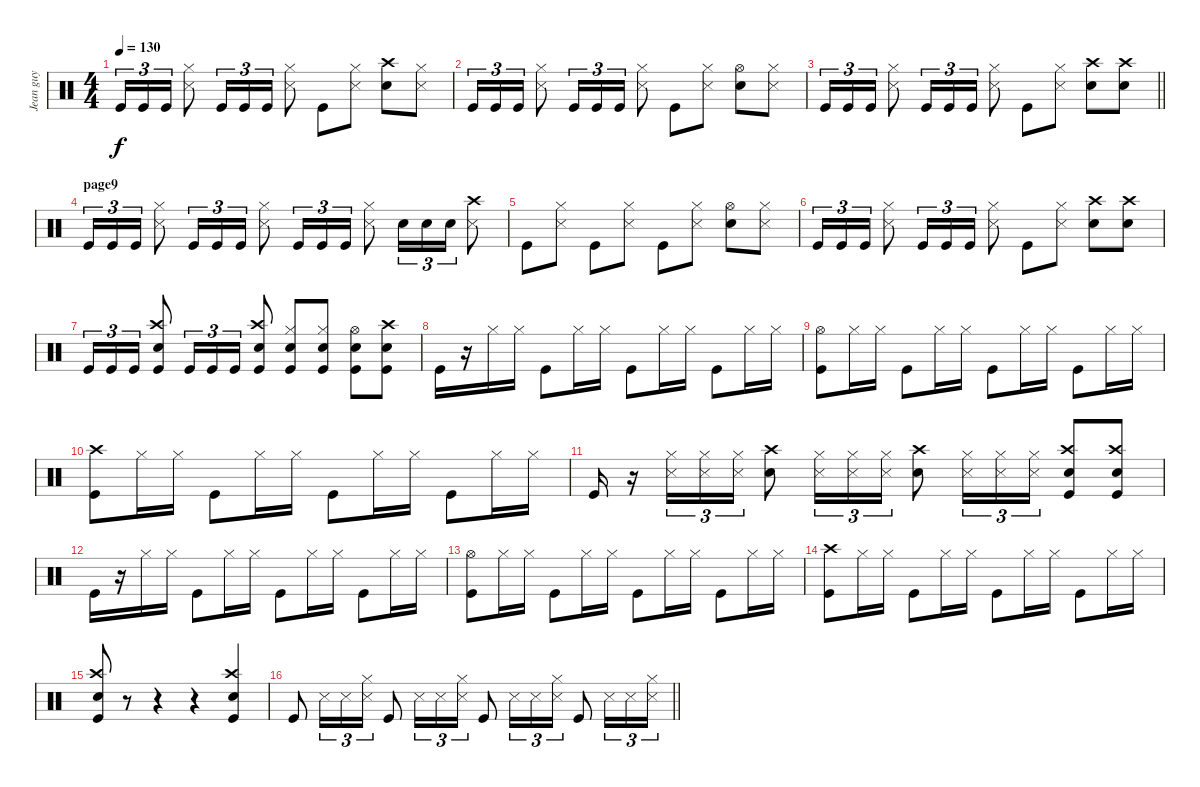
\track ("Jean guy" "Jean guy") {instrument percussion}
\staff {score}
\articulation defaults
\ts (4 4)
\tempo 130
\clef neutral
\ks c "Kick (hit)".16{tu (3 2) dy f} "Kick (hit)".16{tu (3 2)} "Kick (hit)".16{tu (3 2)}
("Hi-Hat (closed)" "Snare (side stick) 3").8 "Kick (hit)".16{tu (3 2)} "Kick (hit)".16{tu (3 2)} "Kick (hit)".16{tu (3 2)} ("Hi-Hat (closed)" "Snare (side stick) 3").8 "Kick (hit)".8 ("Hi-Hat (closed)" "Snare (side stick) 3").8 ("Crash high (hit)" "Electric Snare (hit)").8 ("Hi-Hat (closed)" "Snare (side stick) 3").8 |
"Kick (hit)".16{tu (3 2)} "Kick (hit)".16{tu (3 2)} "Kick (hit)".16{tu (3 2)} ("Hi-Hat (closed)" "Snare (side stick) 3").8 "Kick (hit)".16{tu (3 2)} "Kick (hit)".16{tu (3 2)} "Kick (hit)".16{tu (3 2)} ("Hi-Hat (closed)" "Snare (side stick) 3").8 "Kick (hit)".8 ("Hi-Hat (closed)" "Snare (side stick) 3").8 ("Hi-Hat (open)" "Electric Snare (hit)").8 ("Hi-Hat (closed)" "Snare (side stick) 3").8 |
\barLineRight lightlight "Kick (hit)".16{tu (3 2)} "Kick (hit)".16{tu (3 2)} "Kick (hit)".16{tu (3 2)}
("Hi-Hat (closed)" "Snare (side stick) 3").8 "Kick (hit)".16{tu (3 2)} "Kick (hit)".16{tu (3 2)} "Kick (hit)".16{tu (3 2)} ("Hi-Hat (closed)" "Snare (side stick) 3").8 "Kick (hit)".8 ("Hi-Hat (closed)" "Snare (side stick) 3").8 ("Crash high (hit)" "Electric Snare (hit)").8 ("Crash high (hit)" "Electric Snare (hit)").8 |
\section ("" "page9")
"Kick (hit)".16{tu (3 2)} "Kick (hit)".16{tu (3 2)} "Kick (hit)".16{tu (3 2)} ("Hi-Hat (closed)" "Snare (side stick) 3").8 "Kick (hit)".16{tu (3 2)} "Kick (hit)".16{tu (3 2)} "Kick (hit)".16{tu (3 2)} ("Hi-Hat (closed)" "Snare (side stick) 3").8 "Kick (hit)".16{tu (3 2)} "Kick (hit)".16{tu (3 2)} "Kick (hit)".16{tu (3 2)} ("Hi-Hat (closed)" "Snare (side stick) 3").8 "Electric Snare (hit)".16{tu (3 2)} "Electric Snare (hit)".16{tu (3 2)} "Electric Snare (hit)".16{tu (3 2)} ("Crash high (hit)" "Snare (side stick) 3").8 |
"Kick (hit)".8 ("Hi-Hat (closed)" "Snare (side stick) 3").8 "Kick (hit)".8 ("Hi-Hat (closed)" "Snare (side stick) 3").8 "Kick (hit)".8 ("Hi-Hat (closed)" "Snare (side stick) 3").8 ("Hi-Hat (open)" "Electric Snare (hit)").8 ("Hi-Hat (closed)" "Snare (side stick) 3").8 |
"Kick (hit)".16{tu (3 2)} "Kick (hit)".16{tu (3 2)} "Kick (hit)".16{tu (3 2)} ("Hi-Hat (closed)" "Snare (side stick) 3").8 "Kick (hit)".16{tu (3 2)} "Kick (hit)".16{tu (3 2)} "Kick (hit)".16{tu (3 2)} ("Hi-Hat (closed)" "Snare (side stick) 3").8 "Kick (hit)".8 ("Hi-Hat (closed)" "Snare (side stick) 3").8 ("Crash high (hit)" "Electric Snare (hit)").8 ("Crash high (hit)" "Electric Snare (hit)").8 |
"Kick (hit)".16{tu (3 2)} "Kick (hit)".16{tu (3 2)} "Kick (hit)".16{tu (3 2)} ("Crash high (hit)" "Electric Snare (hit)" "Kick (hit)").8 "Kick (hit)".16{tu (3 2)} "Kick (hit)".16{tu (3 2)} "Kick (hit)".16{tu (3 2)} ("Crash high (hit)" "Electric Snare (hit)" "Kick (hit)").8 ("Hi-Hat (closed)" "Kick (hit)" "Electric Snare (hit)").8 ("Hi-Hat (closed)" "Kick (hit)" "Electric Snare (hit)").8 ("Hi-Hat (open)" "Kick (hit)" "Electric Snare (hit)").8 ("Crash high (hit)" "Kick (hit)" "Electric Snare (hit)").8 |
"Kick (hit)".16 r.16 "Hi-Hat (closed)".16 "Hi-Hat (closed)".16 "Kick (hit)".8 "Hi-Hat (closed)".16 "Hi-Hat (closed)".16 "Kick (hit)".8 "Hi-Hat (closed)".16 "Hi-Hat (closed)".16 "Kick (hit)".8 "Hi-Hat (closed)".16 "Hi-Hat (closed)".16 |
("Hi-Hat (open)" "Kick (hit)").8 "Hi-Hat (closed)".16 "Hi-Hat (closed)".16 "Kick (hit)".8 "Hi-Hat (closed)".16 "Hi-Hat (closed)".16 "Kick (hit)".8 "Hi-Hat (closed)".16 "Hi-Hat (closed)".16 "Kick (hit)".8 "Hi-Hat (closed)".16 "Hi-Hat (closed)".16 |
("Crash high (hit)" "Kick (hit)").8 "Hi-Hat (closed)".16 "Hi-Hat (closed)".16 "Kick (hit)".8 "Hi-Hat (closed)".16 "Hi-Hat (closed)".16 "Kick (hit)".8 "Hi-Hat (closed)".16 "Hi-Hat (closed)".16 "Kick (hit)".8 "Hi-Hat (closed)".16 "Hi-Hat (closed)".16 |
"Kick (hit)".16 r.16 ("Hi-Hat (closed)" "Snare (side stick) 3").16{tu (3 2)} ("Hi-Hat (closed)" "Snare (side stick) 3").16{tu (3 2)} ("Hi-Hat (closed)" "Snare (side stick) 3").16{tu (3 2)} ("Crash high (hit)" "Electric Snare (hit)").8 ("Hi-Hat (closed)" "Snare (side stick) 3").16{tu (3 2)} ("Hi-Hat (closed)" "Snare (side stick) 3").16{tu (3 2)} ("Hi-Hat (closed)" "Snare (side stick) 3").16{tu (3 2)} ("Crash high (hit)" "Electric Snare (hit)").8 ("Hi-Hat (closed)" "Snare (side stick) 3").16{tu (3 2)} ("Hi-Hat (closed)" "Snare (side stick) 3").16{tu (3 2)} ("Hi-Hat (closed)" "Snare (side stick) 3").16{tu (3 2)} ("Kick (hit)" "Crash high (hit)" "Electric Snare (hit)").8 ("Kick (hit)" "Crash high (hit)" "Electric Snare (hit)").8 |
"Kick (hit)".16 r.16 "Hi-Hat (closed)".16 "Hi-Hat (closed)".16 "Kick (hit)".8 "Hi-Hat (closed)".16 "Hi-Hat (closed)".16 "Kick (hit)".8 "Hi-Hat (closed)".16 "Hi-Hat (closed)".16 "Kick (hit)".8 "Hi-Hat (closed)".16 "Hi-Hat (closed)".16 |
("Hi-Hat (open)" "Kick (hit)").8 "Hi-Hat (closed)".16 "Hi-Hat (closed)".16 "Kick (hit)".8 "Hi-Hat (closed)".16 "Hi-Hat (closed)".16 "Kick (hit)".8 "Hi-Hat (closed)".16 "Hi-Hat (closed)".16 "Kick (hit)".8 "Hi-Hat (closed)".16 "Hi-Hat (closed)".16 |
("Crash high (hit)" "Kick (hit)").8 "Hi-Hat (closed)".16 "Hi-Hat (closed)".16 "Kick (hit)".8 "Hi-Hat (closed)".16 "Hi-Hat (closed)".16 "Kick (hit)".8 "Hi-Hat (closed)".16 "Hi-Hat (closed)".16 "Kick (hit)".8 "Hi-Hat (closed)".16 "Hi-Hat (closed)".16 |
("Electric Snare (hit)" "Kick (hit)" "Crash high (hit)").8 r.8 r.4 r.4 ("Electric Snare (hit)" "Crash high (hit)" "Kick (hit)").4 |
\barLineRight lightlight "Kick (hit)".8 "Snare (side stick) 3".16{tu (3 2)} "Snare (side stick) 3".16{tu (3 2)}
("Hi-Hat (closed)" "Snare (side stick) 3").16{tu (3 2)} "Kick (hit)".8 "Snare (side stick) 3".16{tu (3 2)} "Snare (side stick) 3".16{tu (3 2)} ("Hi-Hat (closed)" "Snare (side stick) 3").16{tu (3 2)} "Kick (hit)".8 "Snare (side stick) 3".16{tu (3 2)} "Snare (side stick) 3".16{tu (3 2)} ("Hi-Hat (closed)" "Snare (side stick) 3").16{tu (3 2)} "Kick (hit)".8 "Snare (side stick) 3".16{tu (3 2)} "Snare (side stick) 3".16{tu (3 2)} ("Hi-Hat (closed)" "Snare (side stick) 3").16{tu (3 2)}
